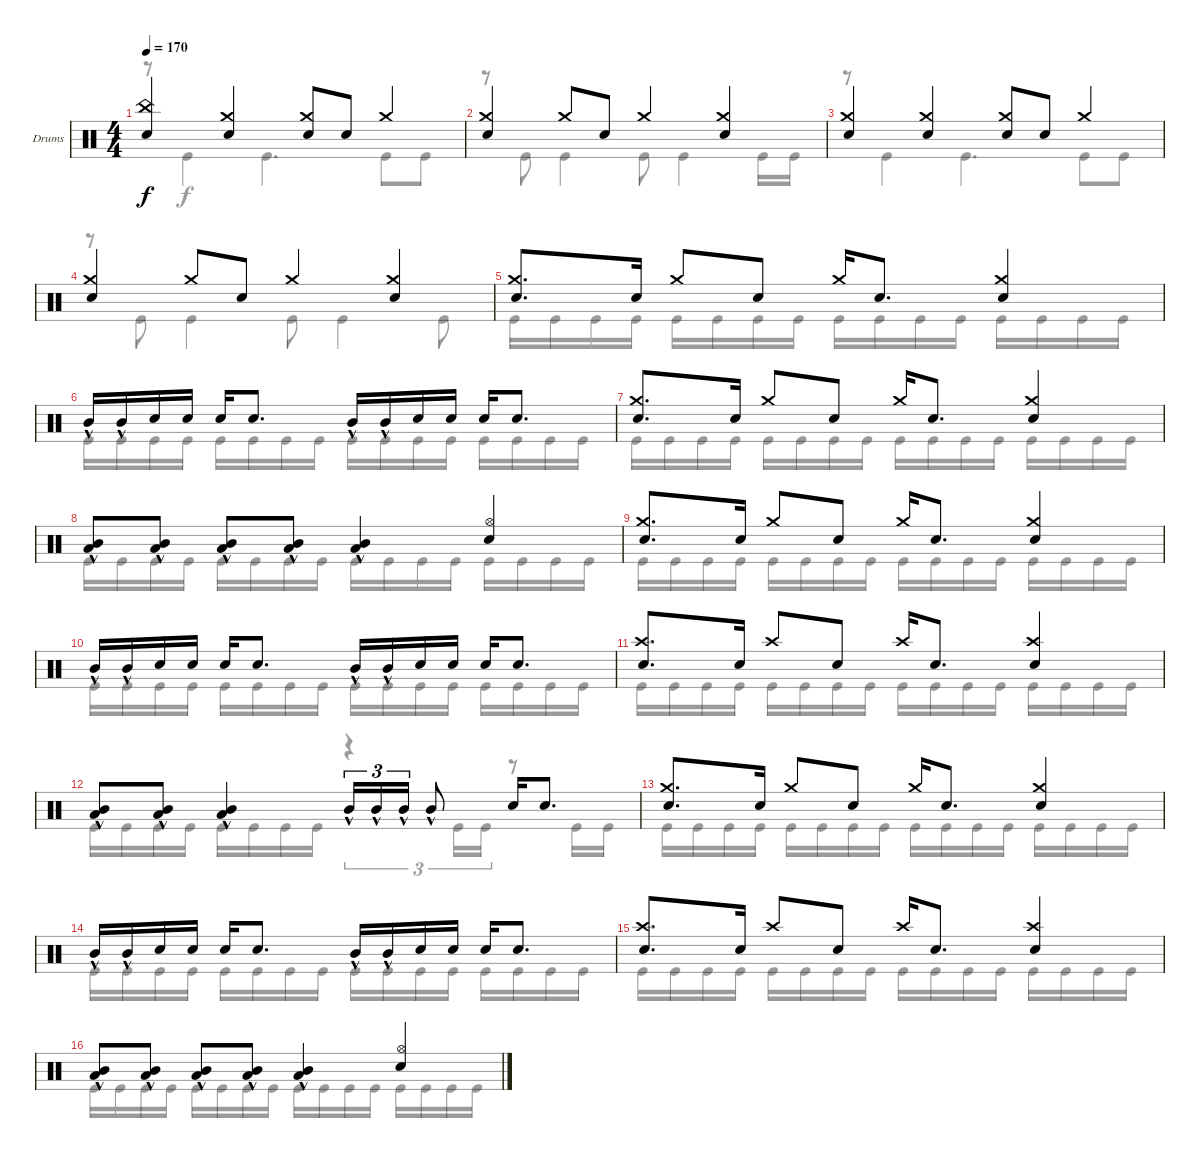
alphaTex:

\defaultSystemsLayout 4
\bracketExtendMode groupsimilarinstruments
\firstSystemTrackNameOrientation horizontal
\otherSystemsTrackNameOrientation horizontal
\track ("Drumkit" "Drums") {instrument percussion}
\staff {score}
\articulation defaults
\voice
\ts (4 4)
\tempo 170
\clef neutral
\ks c
("Snare (hit) 2" "China (hit)").4{dy f} ("Snare (hit) 2" "Crash medium (hit)").4 ("Snare (hit) 2" "Crash medium (hit)").8 "Snare (hit) 2".8 "Crash medium (hit)".4 |
("Snare (hit) 2" "Crash medium (hit)").4 "Crash medium (hit)".8 "Snare (hit) 2".8 "Crash medium (hit)".4 ("Snare (hit) 2" "Crash medium (hit)").4 |
("Snare (hit) 2" "Crash medium (hit)").4 ("Snare (hit) 2" "Crash medium (hit)").4 ("Snare (hit) 2" "Crash medium (hit)").8 "Snare (hit) 2".8 "Crash medium (hit)".4 |
("Snare (hit) 2" "Crash medium (hit)").4 "Crash medium (hit)".8 "Snare (hit) 2".8 "Crash medium (hit)".4 ("Snare (hit) 2" "Crash medium (hit)").4 |
("Snare (hit) 2" "Crash medium (hit)").8{d} "Snare (hit) 2".16 "Crash medium (hit)".8 "Snare (hit) 2".8 "Crash medium (hit)".16 "Snare (hit) 2".8{d} ("Snare (hit) 2" "Crash medium (hit)").4 |
"Mid Tom (hit)"{hac}.16 "Mid Tom (hit)"{hac}.16 "Snare (hit) 2".16 "Snare (hit) 2".16 "Snare (hit) 2".16 "Snare (hit) 2".8{d} "Mid Tom (hit)"{hac}.16 "Mid Tom (hit)"{hac}.16 "Snare (hit) 2".16 "Snare (hit) 2".16 "Snare (hit) 2".16 "Snare (hit) 2".8{d} |
("Snare (hit) 2" "Crash medium (hit)").8{d} "Snare (hit) 2".16 "Crash medium (hit)".8 "Snare (hit) 2".8 "Crash medium (hit)".16 "Snare (hit) 2".8{d} ("Snare (hit) 2" "Crash medium (hit)").4 |
("Mid Tom (hit)"{hac} "Low Tom (hit)"{hac}).8 ("Mid Tom (hit)"{hac} "Low Tom (hit)"{hac}).8 ("Mid Tom (hit)"{hac} "Low Tom (hit)"{hac}).8 ("Mid Tom (hit)"{hac} "Low Tom (hit)"{hac}).8 ("Mid Tom (hit)"{hac} "Low Tom (hit)"{hac}).4 ("Snare (hit) 2" "Hi-Hat (open)").4 |
("Snare (hit) 2" "Crash medium (hit)").8{d} "Snare (hit) 2".16 "Crash medium (hit)".8 "Snare (hit) 2".8 "Crash medium (hit)".16 "Snare (hit) 2".8{d} ("Snare (hit) 2" "Crash medium (hit)").4 |
"Mid Tom (hit)"{hac}.16 "Mid Tom (hit)"{hac}.16 "Snare (hit) 2".16 "Snare (hit) 2".16 "Snare (hit) 2".16 "Snare (hit) 2".8{d} "Mid Tom (hit)"{hac}.16 "Mid Tom (hit)"{hac}.16 "Snare (hit) 2".16 "Snare (hit) 2".16 "Snare (hit) 2".16 "Snare (hit) 2".8{d} |
("Snare (hit) 2" "Crash high (hit)").8{d} "Snare (hit) 2".16 "Crash high (hit)".8 "Snare (hit) 2".8 "Crash high (hit)".16 "Snare (hit) 2".8{d} ("Snare (hit) 2" "Crash high (hit)").4 |
("Mid Tom (hit)"{hac} "Low Tom (hit)"{hac}).8 ("Mid Tom (hit)"{hac} "Low Tom (hit)"{hac}).8 ("Mid Tom (hit)"{hac} "Low Tom (hit)"{hac}).4 "Mid Tom (hit)"{hac}.16{tu (3 2)} "Mid Tom (hit)"{hac}.16{tu (3 2)} "Mid Tom (hit)"{hac}.16{tu (3 2)} "Mid Tom (hit)"{hac}.8 "Snare (hit) 2".16 "Snare (hit) 2".8{d} |
("Snare (hit) 2" "Crash medium (hit)").8{d} "Snare (hit) 2".16 "Crash medium (hit)".8 "Snare (hit) 2".8 "Crash medium (hit)".16 "Snare (hit) 2".8{d} ("Snare (hit) 2" "Crash medium (hit)").4 |
"Mid Tom (hit)"{hac}.16 "Mid Tom (hit)"{hac}.16 "Snare (hit) 2".16 "Snare (hit) 2".16 "Snare (hit) 2".16 "Snare (hit) 2".8{d} "Mid Tom (hit)"{hac}.16 "Mid Tom (hit)"{hac}.16 "Snare (hit) 2".16 "Snare (hit) 2".16 "Snare (hit) 2".16 "Snare (hit) 2".8{d} |
("Snare (hit) 2" "Crash high (hit)").8{d} "Snare (hit) 2".16 "Crash high (hit)".8 "Snare (hit) 2".8 "Crash high (hit)".16 "Snare (hit) 2".8{d} ("Snare (hit) 2" "Crash high (hit)").4 |
("Mid Tom (hit)"{hac} "Low Tom (hit)"{hac}).8 ("Mid Tom (hit)"{hac} "Low Tom (hit)"{hac}).8 ("Mid Tom (hit)"{hac} "Low Tom (hit)"{hac}).8 ("Mid Tom (hit)"{hac} "Low Tom (hit)"{hac}).8 ("Mid Tom (hit)"{hac} "Low Tom (hit)"{hac}).4 ("Snare (hit) 2" "Hi-Hat (open)").4
\voice
\clef neutral
\ottava regular
\simile none
\ks c
r.8{dy f} "Kick (hit)".4 "Kick (hit)".4{d} "Kick (hit)".8 "Kick (hit)".8 |
r.8 "Kick (hit)".8 "Kick (hit)".4 "Kick (hit)".8 "Kick (hit)".4 "Kick (hit)".16 "Kick (hit)".16 |
r.8 "Kick (hit)".4 "Kick (hit)".4{d} "Kick (hit)".8 "Kick (hit)".8 |
r.8 "Kick (hit)".8 "Kick (hit)".4 "Kick (hit)".8 "Kick (hit)".4 "Kick (hit)".8 |
"Kick (hit)".16 "Kick (hit)".16 "Kick (hit)".16 "Kick (hit)".16 "Kick (hit)".16 "Kick (hit)".16 "Kick (hit)".16 "Kick (hit)".16 "Kick (hit)".16 "Kick (hit)".16 "Kick (hit)".16 "Kick (hit)".16 "Kick (hit)".16 "Kick (hit)".16 "Kick (hit)".16 "Kick (hit)".16 |
"Kick (hit)".16 "Kick (hit)".16 "Kick (hit)".16 "Kick (hit)".16 "Kick (hit)".16 "Kick (hit)".16 "Kick (hit)".16 "Kick (hit)".16 "Kick (hit)".16 "Kick (hit)".16 "Kick (hit)".16 "Kick (hit)".16 "Kick (hit)".16 "Kick (hit)".16 "Kick (hit)".16 "Kick (hit)".16 |
"Kick (hit)".16 "Kick (hit)".16 "Kick (hit)".16 "Kick (hit)".16 "Kick (hit)".16 "Kick (hit)".16 "Kick (hit)".16 "Kick (hit)".16 "Kick (hit)".16 "Kick (hit)".16 "Kick (hit)".16 "Kick (hit)".16 "Kick (hit)".16 "Kick (hit)".16 "Kick (hit)".16 "Kick (hit)".16 |
"Kick (hit)".16 "Kick (hit)".16 "Kick (hit)".16 "Kick (hit)".16 "Kick (hit)".16 "Kick (hit)".16 "Kick (hit)".16 "Kick (hit)".16 "Kick (hit)".16 "Kick (hit)".16 "Kick (hit)".16 "Kick (hit)".16 "Kick (hit)".16 "Kick (hit)".16 "Kick (hit)".16 "Kick (hit)".16 |
"Kick (hit)".16 "Kick (hit)".16 "Kick (hit)".16 "Kick (hit)".16 "Kick (hit)".16 "Kick (hit)".16 "Kick (hit)".16 "Kick (hit)".16 "Kick (hit)".16 "Kick (hit)".16 "Kick (hit)".16 "Kick (hit)".16 "Kick (hit)".16 "Kick (hit)".16 "Kick (hit)".16 "Kick (hit)".16 |
"Kick (hit)".16 "Kick (hit)".16 "Kick (hit)".16 "Kick (hit)".16 "Kick (hit)".16 "Kick (hit)".16 "Kick (hit)".16 "Kick (hit)".16 "Kick (hit)".16 "Kick (hit)".16 "Kick (hit)".16 "Kick (hit)".16 "Kick (hit)".16 "Kick (hit)".16 "Kick (hit)".16 "Kick (hit)".16 |
"Kick (hit)".16 "Kick (hit)".16 "Kick (hit)".16 "Kick (hit)".16 "Kick (hit)".16 "Kick (hit)".16 "Kick (hit)".16 "Kick (hit)".16 "Kick (hit)".16 "Kick (hit)".16 "Kick (hit)".16 "Kick (hit)".16 "Kick (hit)".16 "Kick (hit)".16 "Kick (hit)".16 "Kick (hit)".16 |
"Kick (hit)".16 "Kick (hit)".16 "Kick (hit)".16 "Kick (hit)".16 "Kick (hit)".16 "Kick (hit)".16 "Kick (hit)".16 "Kick (hit)".16 r.4{tu (3 2)} "Kick (hit)".16{tu (3 2)} "Kick (hit)".16{tu (3 2)} r.8 "Kick (hit)".16 "Kick (hit)".16 |
"Kick (hit)".16 "Kick (hit)".16 "Kick (hit)".16 "Kick (hit)".16 "Kick (hit)".16 "Kick (hit)".16 "Kick (hit)".16 "Kick (hit)".16 "Kick (hit)".16 "Kick (hit)".16 "Kick (hit)".16 "Kick (hit)".16 "Kick (hit)".16 "Kick (hit)".16 "Kick (hit)".16 "Kick (hit)".16 |
"Kick (hit)".16 "Kick (hit)".16 "Kick (hit)".16 "Kick (hit)".16 "Kick (hit)".16 "Kick (hit)".16 "Kick (hit)".16 "Kick (hit)".16 "Kick (hit)".16 "Kick (hit)".16 "Kick (hit)".16 "Kick (hit)".16 "Kick (hit)".16 "Kick (hit)".16 "Kick (hit)".16 "Kick (hit)".16 |
"Kick (hit)".16 "Kick (hit)".16 "Kick (hit)".16 "Kick (hit)".16 "Kick (hit)".16 "Kick (hit)".16 "Kick (hit)".16 "Kick (hit)".16 "Kick (hit)".16 "Kick (hit)".16 "Kick (hit)".16 "Kick (hit)".16 "Kick (hit)".16 "Kick (hit)".16 "Kick (hit)".16 "Kick (hit)".16 |
"Kick (hit)".16 "Kick (hit)".16 "Kick (hit)".16 "Kick (hit)".16 "Kick (hit)".16 "Kick (hit)".16 "Kick (hit)".16 "Kick (hit)".16 "Kick (hit)".16 "Kick (hit)".16 "Kick (hit)".16 "Kick (hit)".16 "Kick (hit)".16 "Kick (hit)".16 "Kick (hit)".16 "Kick (hit)".16
